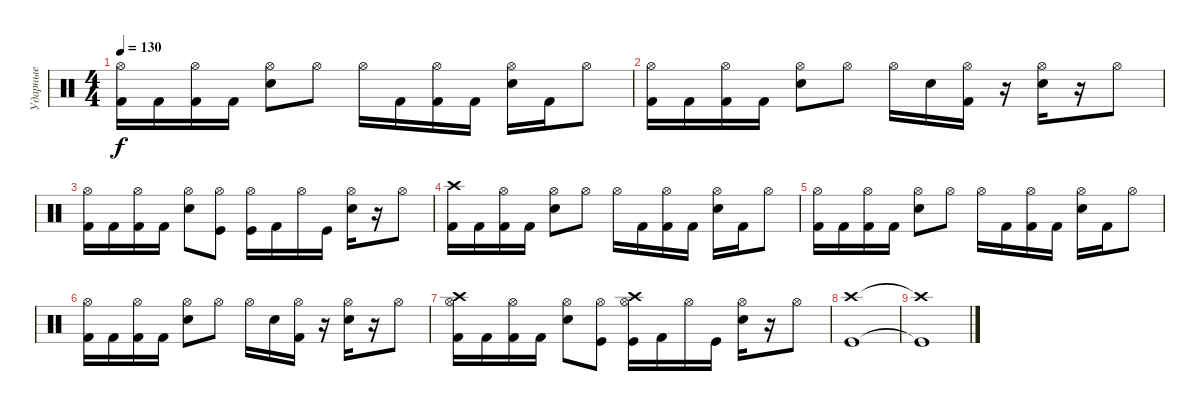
\track ("Ударные" "Ударные") {instrument percussion}
\staff {score}
\articulation defaults
\ts (4 4)
\tempo 130
\clef neutral
\ks c
("Hi-Hat (open)" "Kick (hit) 2").16{dy f} "Kick (hit) 2".16 ("Hi-Hat (open)" "Kick (hit) 2").16 "Kick (hit) 2".16 ("Hi-Hat (open)" "Electric Snare (hit)").8 "Hi-Hat (open)".8 "Hi-Hat (open)".16 "Kick (hit) 2".16 ("Hi-Hat (open)" "Kick (hit) 2").16 "Kick (hit) 2".16 ("Hi-Hat (open)" "Electric Snare (hit)").16 "Kick (hit) 2".16 "Hi-Hat (open)".8 |
("Hi-Hat (open)" "Kick (hit) 2").16 "Kick (hit) 2".16 ("Hi-Hat (open)" "Kick (hit) 2").16 "Kick (hit) 2".16 ("Hi-Hat (open)" "Electric Snare (hit)").8 "Hi-Hat (open)".8 "Hi-Hat (open)".16 "Snare (hit) 2".16 ("Hi-Hat (open)" "Kick (hit) 2").16 r.16 ("Hi-Hat (open)" "Electric Snare (hit)").16 r.16 "Hi-Hat (open)".8 |
("Hi-Hat (open)" "Kick (hit) 2").16 "Kick (hit) 2".16 ("Hi-Hat (open)" "Kick (hit) 2").16 "Kick (hit) 2".16 ("Hi-Hat (open)" "Electric Snare (hit)").8 ("Hi-Hat (open)" "Kick (hit)").8 ("Hi-Hat (open)" "Kick (hit)").16 "Kick (hit) 2".16 "Hi-Hat (open)".16 "Kick (hit)".16 ("Hi-Hat (open)" "Snare (hit) 2").16 r.16 "Hi-Hat (open)".8 |
("Crash high (hit)" "Kick (hit) 2").16 "Kick (hit) 2".16 ("Hi-Hat (open)" "Kick (hit) 2").16 "Kick (hit) 2".16 ("Hi-Hat (open)" "Electric Snare (hit)").8 "Hi-Hat (open)".8 "Hi-Hat (open)".16 "Kick (hit) 2".16 ("Hi-Hat (open)" "Kick (hit) 2").16 "Kick (hit) 2".16 ("Hi-Hat (open)" "Electric Snare (hit)").16 "Kick (hit) 2".16 "Hi-Hat (open)".8 |
("Hi-Hat (open)" "Kick (hit) 2").16 "Kick (hit) 2".16 ("Hi-Hat (open)" "Kick (hit) 2").16 "Kick (hit) 2".16 ("Hi-Hat (open)" "Electric Snare (hit)").8 "Hi-Hat (open)".8 "Hi-Hat (open)".16 "Kick (hit) 2".16 ("Hi-Hat (open)" "Kick (hit) 2").16 "Kick (hit) 2".16 ("Hi-Hat (open)" "Electric Snare (hit)").16 "Kick (hit) 2".16 "Hi-Hat (open)".8 |
("Hi-Hat (open)" "Kick (hit) 2").16 "Kick (hit) 2".16 ("Hi-Hat (open)" "Kick (hit) 2").16 "Kick (hit) 2".16 ("Hi-Hat (open)" "Electric Snare (hit)").8 "Hi-Hat (open)".8 "Hi-Hat (open)".16 "Snare (hit) 2".16 ("Hi-Hat (open)" "Kick (hit) 2").16 r.16 ("Hi-Hat (open)" "Electric Snare (hit)").16 r.16 "Hi-Hat (open)".8 |
("Hi-Hat (open)" "Crash high (hit)" "Kick (hit) 2").16 "Kick (hit) 2".16 ("Hi-Hat (open)" "Kick (hit) 2").16 "Kick (hit) 2".16 ("Hi-Hat (open)" "Electric Snare (hit)").8 ("Hi-Hat (open)" "Kick (hit)").8 ("Hi-Hat (open)" "Kick (hit)" "Crash high (hit)").16 "Kick (hit) 2".16 "Hi-Hat (open)".16 "Kick (hit)".16 ("Hi-Hat (open)" "Snare (hit) 2").16 r.16 "Hi-Hat (open)".8 |
("Kick (hit)" "Crash high (hit)").1 |
("Kick (hit)"{t} "Crash high (hit)"{t}).1
